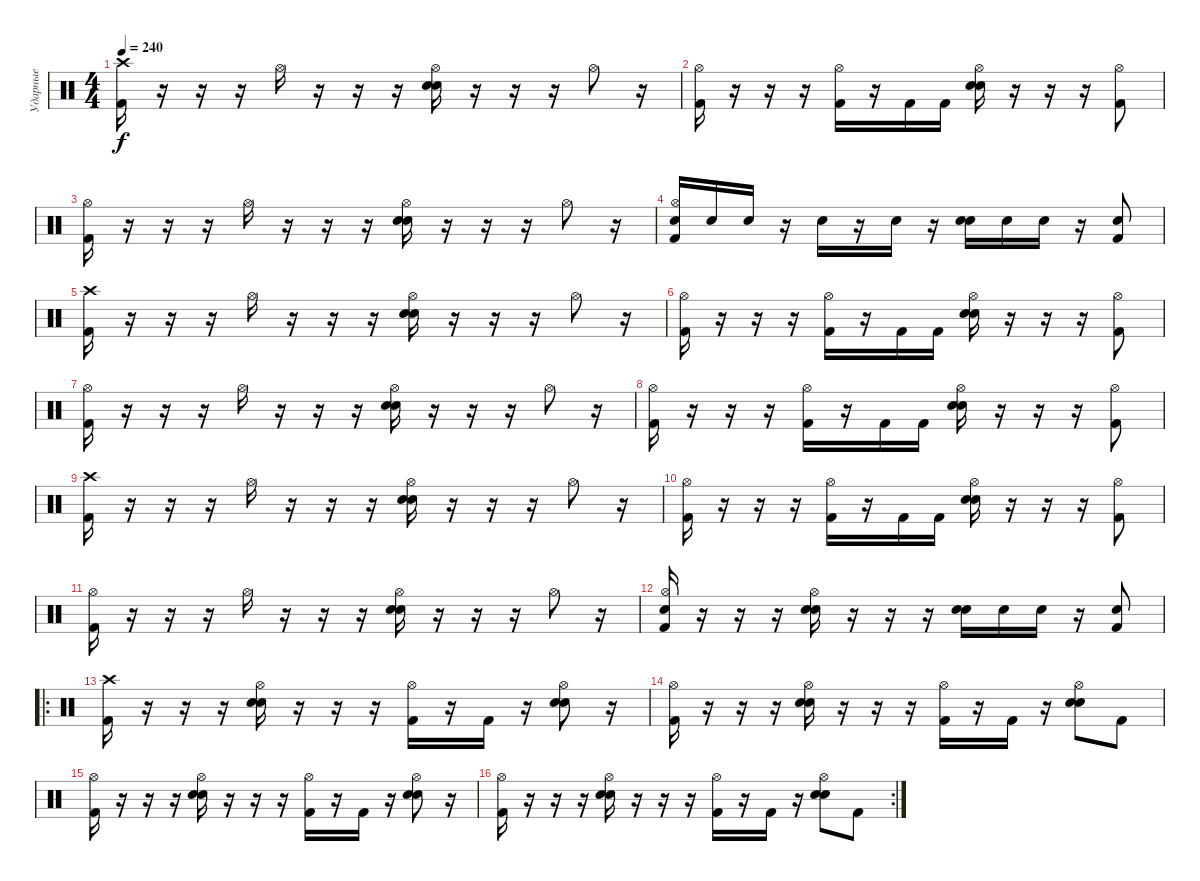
\track ("Ударные" "Ударные") {instrument percussion}
\staff {score}
\articulation defaults
\ts (4 4)
\tempo 240
\clef neutral
\ks c
("Crash high (hit)" "Kick (hit) 2").16{dy f} r.16 r.16 r.16 "Hi-Hat (open)".16 r.16 r.16 r.16 ("Hi-Hat (open)" "Electric Snare (hit)" "Snare (hit) 2").16 r.16 r.16 r.16 "Hi-Hat (open)".8 r.16 |
("Hi-Hat (open)" "Kick (hit) 2").16 r.16 r.16 r.16 ("Hi-Hat (open)" "Kick (hit) 2").16 r.16 "Kick (hit) 2".16 "Kick (hit) 2".16 ("Hi-Hat (open)" "Electric Snare (hit)" "Snare (hit) 2").16 r.16 r.16 r.16 ("Hi-Hat (open)" "Kick (hit) 2").8 |
("Hi-Hat (open)" "Kick (hit) 2").16 r.16 r.16 r.16 "Hi-Hat (open)".16 r.16 r.16 r.16 ("Hi-Hat (open)" "Electric Snare (hit)" "Snare (hit) 2").16 r.16 r.16 r.16 "Hi-Hat (open)".8 r.16 |
("Hi-Hat (open)" "Kick (hit) 2" "Electric Snare (hit)").16 "Electric Snare (hit)".16 "Electric Snare (hit)".16 r.16 "Electric Snare (hit)".16 r.16 "Electric Snare (hit)".16 r.16 ("Electric Snare (hit)" "Snare (hit) 2").16 "Electric Snare (hit)".16 "Electric Snare (hit)".16 r.16 ("Kick (hit) 2" "Electric Snare (hit)").8 |
("Crash high (hit)" "Kick (hit) 2").16 r.16 r.16 r.16 "Hi-Hat (open)".16 r.16 r.16 r.16 ("Hi-Hat (open)" "Electric Snare (hit)" "Snare (hit) 2").16 r.16 r.16 r.16 "Hi-Hat (open)".8 r.16 |
("Hi-Hat (open)" "Kick (hit) 2").16 r.16 r.16 r.16 ("Hi-Hat (open)" "Kick (hit) 2").16 r.16 "Kick (hit) 2".16 "Kick (hit) 2".16 ("Hi-Hat (open)" "Electric Snare (hit)" "Snare (hit) 2").16 r.16 r.16 r.16 ("Hi-Hat (open)" "Kick (hit) 2").8 |
("Hi-Hat (open)" "Kick (hit) 2").16 r.16 r.16 r.16 "Hi-Hat (open)".16 r.16 r.16 r.16 ("Hi-Hat (open)" "Electric Snare (hit)" "Snare (hit) 2").16 r.16 r.16 r.16 "Hi-Hat (open)".8 r.16 |
("Hi-Hat (open)" "Kick (hit) 2").16 r.16 r.16 r.16 ("Hi-Hat (open)" "Kick (hit) 2").16 r.16 "Kick (hit) 2".16 "Kick (hit) 2".16 ("Hi-Hat (open)" "Electric Snare (hit)" "Snare (hit) 2").16 r.16 r.16 r.16 ("Hi-Hat (open)" "Kick (hit) 2").8 |
("Crash high (hit)" "Kick (hit) 2").16 r.16 r.16 r.16 "Hi-Hat (open)".16 r.16 r.16 r.16 ("Hi-Hat (open)" "Electric Snare (hit)" "Snare (hit) 2").16 r.16 r.16 r.16 "Hi-Hat (open)".8 r.16 |
("Hi-Hat (open)" "Kick (hit) 2").16 r.16 r.16 r.16 ("Hi-Hat (open)" "Kick (hit) 2").16 r.16 "Kick (hit) 2".16 "Kick (hit) 2".16 ("Hi-Hat (open)" "Electric Snare (hit)" "Snare (hit) 2").16 r.16 r.16 r.16 ("Hi-Hat (open)" "Kick (hit) 2").8 |
("Hi-Hat (open)" "Kick (hit) 2").16 r.16 r.16 r.16 "Hi-Hat (open)".16 r.16 r.16 r.16 ("Hi-Hat (open)" "Electric Snare (hit)" "Snare (hit) 2").16 r.16 r.16 r.16 "Hi-Hat (open)".8 r.16 |
("Hi-Hat (open)" "Kick (hit) 2" "Electric Snare (hit)").16 r.16 r.16 r.16 ("Hi-Hat (open)" "Electric Snare (hit)" "Electric Snare (hit)").16 r.16 r.16 r.16 ("Electric Snare (hit)" "Snare (hit) 2").16 "Electric Snare (hit)".16 "Electric Snare (hit)".16 r.16 ("Kick (hit) 2" "Electric Snare (hit)").8 |
\ro
("Crash high (hit)" "Kick (hit) 2").16 r.16 r.16 r.16 ("Hi-Hat (open)" "Electric Snare (hit)" "Snare (hit) 2").16 r.16 r.16 r.16 ("Hi-Hat (open)" "Kick (hit) 2").16 r.16 "Kick (hit) 2".16 r.16 ("Hi-Hat (open)" "Electric Snare (hit)" "Snare (hit) 2").8 r.16 |
("Hi-Hat (open)" "Kick (hit) 2").16 r.16 r.16 r.16 ("Hi-Hat (open)" "Electric Snare (hit)" "Snare (hit) 2").16 r.16 r.16 r.16 ("Hi-Hat (open)" "Kick (hit) 2").16 r.16 "Kick (hit) 2".16 r.16 ("Hi-Hat (open)" "Electric Snare (hit)" "Snare (hit) 2").8 "Kick (hit) 2".8 |
("Hi-Hat (open)" "Kick (hit) 2").16 r.16 r.16 r.16 ("Hi-Hat (open)" "Electric Snare (hit)" "Snare (hit) 2").16 r.16 r.16 r.16 ("Hi-Hat (open)" "Kick (hit) 2").16 r.16 "Kick (hit) 2".16 r.16 ("Hi-Hat (open)" "Electric Snare (hit)" "Snare (hit) 2").8 r.16 |
\rc 2
("Hi-Hat (open)" "Kick (hit) 2").16 r.16 r.16 r.16 ("Hi-Hat (open)" "Electric Snare (hit)" "Snare (hit) 2").16 r.16 r.16 r.16 ("Hi-Hat (open)" "Kick (hit) 2").16 r.16 "Kick (hit) 2".16 r.16 ("Hi-Hat (open)" "Electric Snare (hit)" "Snare (hit) 2").8 "Kick (hit) 2".8
